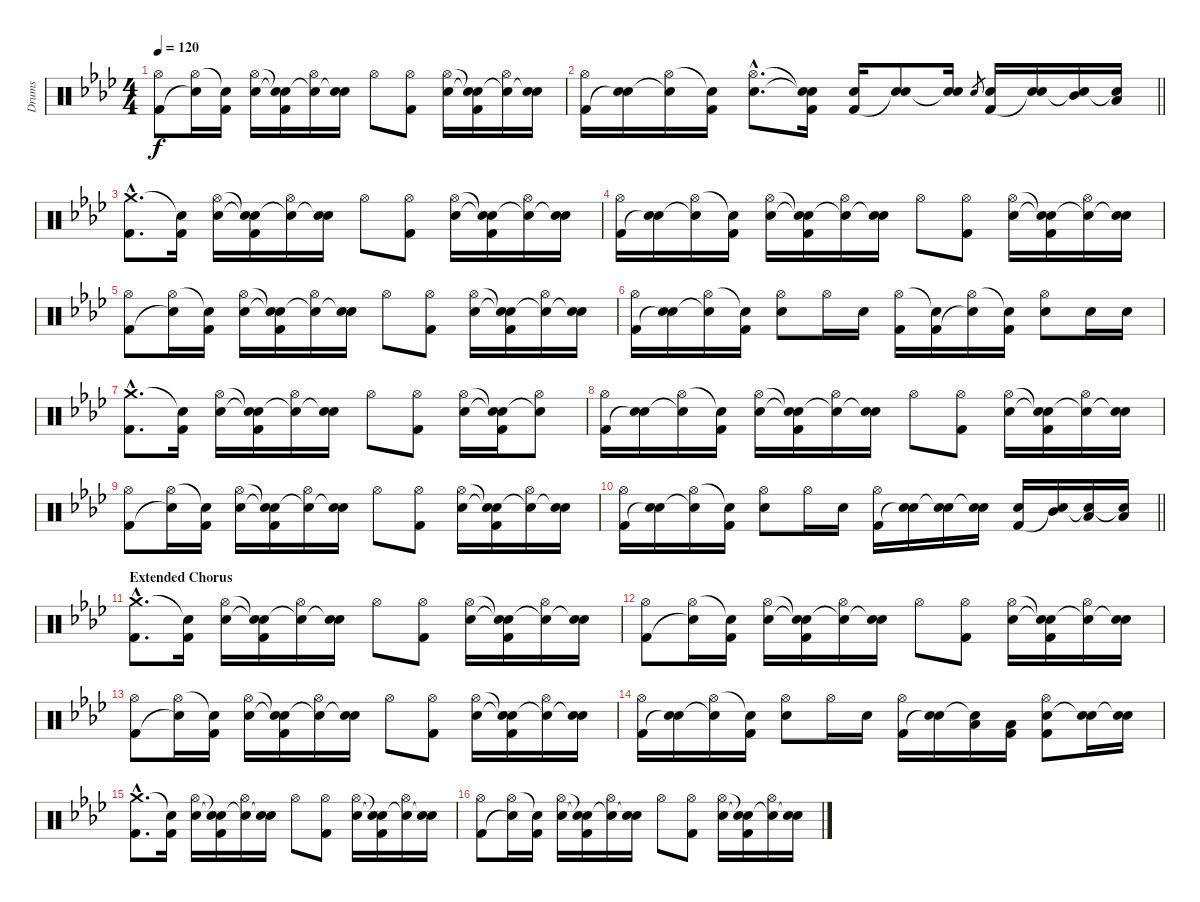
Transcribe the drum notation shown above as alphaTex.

\track ("Drums" "Drums") {instrument percussion}
\staff {score}
\articulation defaults
\ts (4 4)
\tempo 120
\clef neutral
\ks fminor
("Hi-Hat (open)" "Kick (hit) 2").8{dy f} ("Hi-Hat (open)" "Snare (hit)"{t}).16 ("Snare (hit)"{t} "Kick (hit) 2").16 ("Hi-Hat (open)" "Electric Snare (hit)").16 ("Snare (hit)"{t} "Snare (hit)"{t} "Kick (hit) 2").16 ("Hi-Hat (open)" "Snare (hit)"{t}).16 ("Electric Snare (hit)" "Snare (hit)"{t}).16 "Hi-Hat (open)".8 ("Hi-Hat (open)" "Kick (hit) 2").8 ("Hi-Hat (open)" "Electric Snare (hit)").16 ("Snare (hit)"{t} "Snare (hit)"{t} "Kick (hit) 2").16 ("Hi-Hat (open)" "Snare (hit)"{t}).16 ("Electric Snare (hit)" "Snare (hit)"{t}).16 |
\barLineRight lightlight
("Hi-Hat (open)" "Kick (hit) 2").16 ("Electric Snare (hit)" "Snare (hit)"{t}).16 ("Hi-Hat (open)" "Snare (hit)"{t}).16 ("Snare (hit)"{t} "Kick (hit) 2").16 ("Hi-Hat (open)"{hac} "Electric Snare (hit)"{hac}).8{d} ("Snare (hit)"{t} "Snare (hit)"{t} "Kick (hit) 2").16 ("Electric Snare (hit)" "Kick (hit) 2").16 ("Electric Snare (hit)" "Snare (hit)"{t}).8 ("Electric Snare (hit)" "Snare (hit)"{t}).16 "Electric Snare (hit)".8{gr} ("Electric Snare (hit)" "Kick (hit) 2").16 ("Electric Snare (hit)" "Snare (hit)"{t}).16 ("Mid Tom (hit)" "Snare (hit)"{t}).16 ("Low Floor Tom (hit)" "Snare (hit)"{t}).16 |
("Crash medium (hit)"{hac} "Kick (hit) 2"{hac}).8{d} ("Snare (hit)"{t} "Kick (hit) 2").16 ("Hi-Hat (open)" "Electric Snare (hit)").16 ("Snare (hit)"{t} "Snare (hit)"{t} "Kick (hit) 2").16 ("Hi-Hat (open)" "Snare (hit)"{t}).16 ("Electric Snare (hit)" "Snare (hit)"{t}).16 "Hi-Hat (open)".8 ("Hi-Hat (open)" "Kick (hit) 2").8 ("Hi-Hat (open)" "Electric Snare (hit)").16 ("Snare (hit)"{t} "Snare (hit)"{t} "Kick (hit) 2").16 ("Hi-Hat (open)" "Snare (hit)"{t}).16 ("Electric Snare (hit)" "Snare (hit)"{t}).16 |
("Hi-Hat (open)" "Kick (hit) 2").16 ("Electric Snare (hit)" "Snare (hit)"{t}).16 ("Hi-Hat (open)" "Snare (hit)"{t}).16 ("Snare (hit)"{t} "Kick (hit) 2").16 ("Hi-Hat (open)" "Electric Snare (hit)").16 ("Snare (hit)"{t} "Snare (hit)"{t} "Kick (hit) 2").16 ("Hi-Hat (open)" "Snare (hit)"{t}).16 ("Electric Snare (hit)" "Snare (hit)"{t}).16 "Hi-Hat (open)".8 ("Hi-Hat (open)" "Kick (hit) 2").8 ("Hi-Hat (open)" "Electric Snare (hit)").16 ("Snare (hit)"{t} "Snare (hit)"{t} "Kick (hit) 2").16 ("Hi-Hat (open)" "Snare (hit)"{t}).16 ("Electric Snare (hit)" "Snare (hit)"{t}).16 |
("Hi-Hat (open)" "Kick (hit) 2").8 ("Hi-Hat (open)" "Snare (hit)"{t}).16 ("Snare (hit)"{t} "Kick (hit) 2").16 ("Hi-Hat (open)" "Electric Snare (hit)").16 ("Snare (hit)"{t} "Snare (hit)"{t} "Kick (hit) 2").16 ("Hi-Hat (open)" "Snare (hit)"{t}).16 ("Electric Snare (hit)" "Snare (hit)"{t}).16 "Hi-Hat (open)".8 ("Hi-Hat (open)" "Kick (hit) 2").8 ("Hi-Hat (open)" "Electric Snare (hit)").16 ("Snare (hit)"{t} "Snare (hit)"{t} "Kick (hit) 2").16 ("Hi-Hat (open)" "Snare (hit)"{t}).16 ("Electric Snare (hit)" "Snare (hit)"{t}).16 |
("Hi-Hat (open)" "Kick (hit) 2").16 ("Electric Snare (hit)" "Snare (hit)"{t}).16 ("Hi-Hat (open)" "Snare (hit)"{t}).16 ("Snare (hit)"{t} "Kick (hit) 2").16 ("Hi-Hat (open)" "Electric Snare (hit)").8 "Hi-Hat (open)".16 "Electric Snare (hit)".16 ("Hi-Hat (open)" "Kick (hit) 2").16 ("Snare (hit)"{t} "Kick (hit) 2").16 ("Hi-Hat (open)" "Snare (hit)"{t}).16 ("Snare (hit)"{t} "Kick (hit) 2").16 ("Hi-Hat (open)" "Electric Snare (hit)").8 "Electric Snare (hit)".16 "Electric Snare (hit)".16 |
("Crash medium (hit)"{hac} "Kick (hit) 2"{hac}).8{d} ("Snare (hit)"{t} "Kick (hit) 2").16 ("Hi-Hat (open)" "Electric Snare (hit)").16 ("Snare (hit)"{t} "Snare (hit)"{t} "Kick (hit) 2").16 ("Hi-Hat (open)" "Snare (hit)"{t}).16 ("Electric Snare (hit)" "Snare (hit)"{t}).16 "Hi-Hat (open)".8 ("Hi-Hat (open)" "Kick (hit) 2").8 ("Hi-Hat (open)" "Electric Snare (hit)").16 ("Snare (hit)"{t} "Snare (hit)"{t} "Kick (hit) 2").16 ("Hi-Hat (open)" "Snare (hit)"{t}).8 |
("Hi-Hat (open)" "Kick (hit) 2").16 ("Electric Snare (hit)" "Snare (hit)"{t}).16 ("Hi-Hat (open)" "Snare (hit)"{t}).16 ("Snare (hit)"{t} "Kick (hit) 2").16 ("Hi-Hat (open)" "Electric Snare (hit)").16 ("Snare (hit)"{t} "Snare (hit)"{t} "Kick (hit) 2").16 ("Hi-Hat (open)" "Snare (hit)"{t}).16 ("Electric Snare (hit)" "Snare (hit)"{t}).16 "Hi-Hat (open)".8 ("Hi-Hat (open)" "Kick (hit) 2").8 ("Hi-Hat (open)" "Electric Snare (hit)").16 ("Snare (hit)"{t} "Snare (hit)"{t} "Kick (hit) 2").16 ("Hi-Hat (open)" "Snare (hit)"{t}).16 ("Electric Snare (hit)" "Snare (hit)"{t}).16 |
("Hi-Hat (open)" "Kick (hit) 2").8 ("Hi-Hat (open)" "Snare (hit)"{t}).16 ("Snare (hit)"{t} "Kick (hit) 2").16 ("Hi-Hat (open)" "Electric Snare (hit)").16 ("Snare (hit)"{t} "Snare (hit)"{t} "Kick (hit) 2").16 ("Hi-Hat (open)" "Snare (hit)"{t}).16 ("Electric Snare (hit)" "Snare (hit)"{t}).16 "Hi-Hat (open)".8 ("Hi-Hat (open)" "Kick (hit) 2").8 ("Hi-Hat (open)" "Electric Snare (hit)").16 ("Snare (hit)"{t} "Snare (hit)"{t} "Kick (hit) 2").16 ("Hi-Hat (open)" "Snare (hit)"{t}).16 ("Electric Snare (hit)" "Snare (hit)"{t}).16 |
\barLineRight lightlight
("Hi-Hat (open)" "Kick (hit) 2").16 ("Electric Snare (hit)" "Snare (hit)"{t}).16 ("Hi-Hat (open)" "Snare (hit)"{t}).16 ("Snare (hit)"{t} "Kick (hit) 2").16 ("Hi-Hat (open)" "Electric Snare (hit)").8 "Hi-Hat (open)".16 "Electric Snare (hit)".16 ("Hi-Hat (open)" "Kick (hit) 2").16 ("Electric Snare (hit)" "Snare (hit)"{t}).16 ("Electric Snare (hit)" "Snare (hit)"{t}).16 ("Electric Snare (hit)" "Snare (hit)"{t}).16 ("Electric Snare (hit)" "Kick (hit) 2").16 ("Mid Tom (hit)" "Snare (hit)"{t}).16 ("Low Tom (hit)" "Snare (hit)"{t}).16 ("Low Floor Tom (hit)" "Snare (hit)"{t}).16 |
\section ("" "Extended Chorus")
("Crash medium (hit)"{hac} "Kick (hit) 2"{hac}).8{d} ("Snare (hit)"{t} "Kick (hit) 2").16 ("Hi-Hat (open)" "Electric Snare (hit)").16 ("Snare (hit)"{t} "Snare (hit)"{t} "Kick (hit) 2").16 ("Hi-Hat (open)" "Snare (hit)"{t}).16 ("Electric Snare (hit)" "Snare (hit)"{t}).16 "Hi-Hat (open)".8 ("Hi-Hat (open)" "Kick (hit) 2").8 ("Hi-Hat (open)" "Electric Snare (hit)").16 ("Snare (hit)"{t} "Snare (hit)"{t} "Kick (hit) 2").16 ("Hi-Hat (open)" "Snare (hit)"{t}).16 ("Electric Snare (hit)" "Snare (hit)"{t}).16 |
("Hi-Hat (open)" "Kick (hit) 2").8 ("Hi-Hat (open)" "Snare (hit)"{t}).16 ("Snare (hit)"{t} "Kick (hit) 2").16 ("Hi-Hat (open)" "Electric Snare (hit)").16 ("Snare (hit)"{t} "Snare (hit)"{t} "Kick (hit) 2").16 ("Hi-Hat (open)" "Snare (hit)"{t}).16 ("Electric Snare (hit)" "Snare (hit)"{t}).16 "Hi-Hat (open)".8 ("Hi-Hat (open)" "Kick (hit) 2").8 ("Hi-Hat (open)" "Electric Snare (hit)").16 ("Snare (hit)"{t} "Snare (hit)"{t} "Kick (hit) 2").16 ("Hi-Hat (open)" "Snare (hit)"{t}).16 ("Electric Snare (hit)" "Snare (hit)"{t}).16 |
("Hi-Hat (open)" "Kick (hit) 2").8 ("Hi-Hat (open)" "Snare (hit)"{t}).16 ("Snare (hit)"{t} "Kick (hit) 2").16 ("Hi-Hat (open)" "Electric Snare (hit)").16 ("Snare (hit)"{t} "Snare (hit)"{t} "Kick (hit) 2").16 ("Hi-Hat (open)" "Snare (hit)"{t}).16 ("Electric Snare (hit)" "Snare (hit)"{t}).16 "Hi-Hat (open)".8 ("Hi-Hat (open)" "Kick (hit) 2").8 ("Hi-Hat (open)" "Electric Snare (hit)").16 ("Snare (hit)"{t} "Snare (hit)"{t} "Kick (hit) 2").16 ("Hi-Hat (open)" "Snare (hit)"{t}).16 ("Electric Snare (hit)" "Snare (hit)"{t}).16 |
("Hi-Hat (open)" "Kick (hit) 2").16 ("Electric Snare (hit)" "Snare (hit)"{t}).16 ("Hi-Hat (open)" "Snare (hit)"{t}).16 ("Snare (hit)"{t} "Kick (hit) 2").16 ("Hi-Hat (open)" "Electric Snare (hit)").8 "Hi-Hat (open)".16 "Electric Snare (hit)".16 ("Hi-Hat (open)" "Kick (hit) 2").16 ("Electric Snare (hit)" "Snare (hit)"{t}).16 ("Low Tom (hit)" "Snare (hit)"{t}).16 ("Low Floor Tom (hit)" "Kick (hit) 2").16 ("Hi-Hat (open)" "Electric Snare (hit)" "Kick (hit) 2").8 ("Electric Snare (hit)" "Snare (hit)"{t}).16 ("Electric Snare (hit)" "Snare (hit)"{t}).16 |
("Crash medium (hit)"{hac} "Kick (hit) 2"{hac}).8{d} ("Snare (hit)"{t} "Kick (hit) 2").16 ("Hi-Hat (open)" "Electric Snare (hit)").16 ("Snare (hit)"{t} "Snare (hit)"{t} "Kick (hit) 2").16 ("Hi-Hat (open)" "Snare (hit)"{t}).16 ("Electric Snare (hit)" "Snare (hit)"{t}).16 "Hi-Hat (open)".8 ("Hi-Hat (open)" "Kick (hit) 2").8 ("Hi-Hat (open)" "Electric Snare (hit)").16 ("Snare (hit)"{t} "Snare (hit)"{t} "Kick (hit) 2").16 ("Hi-Hat (open)" "Snare (hit)"{t}).16 ("Electric Snare (hit)" "Snare (hit)"{t}).16 |
("Hi-Hat (open)" "Kick (hit) 2").8 ("Hi-Hat (open)" "Snare (hit)"{t}).16 ("Snare (hit)"{t} "Kick (hit) 2").16 ("Hi-Hat (open)" "Electric Snare (hit)").16 ("Snare (hit)"{t} "Snare (hit)"{t} "Kick (hit) 2").16 ("Hi-Hat (open)" "Snare (hit)"{t}).16 ("Electric Snare (hit)" "Snare (hit)"{t}).16 "Hi-Hat (open)".8 ("Hi-Hat (open)" "Kick (hit) 2").8 ("Hi-Hat (open)" "Electric Snare (hit)").16 ("Snare (hit)"{t} "Snare (hit)"{t} "Kick (hit) 2").16 ("Hi-Hat (open)" "Snare (hit)"{t}).16 ("Electric Snare (hit)" "Snare (hit)"{t}).16
